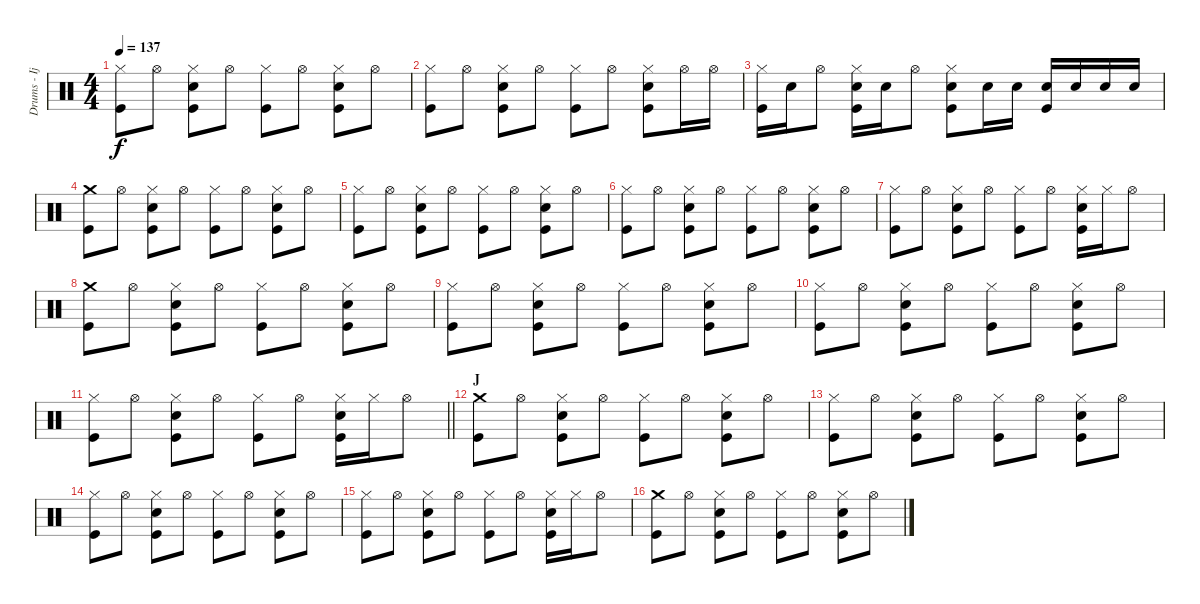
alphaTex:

\track ("Drums - Ijichi" "Drums - Ij") {instrument percussion}
\staff {score}
\articulation defaults
\ts (4 4)
\tempo 137
\clef neutral
\ks c
("Hi-Hat (closed)" "Kick (hit)").8{dy f} "Hi-Hat (open)".8 ("Hi-Hat (closed)" "Electric Snare (hit)" "Kick (hit)").8 "Hi-Hat (open)".8 ("Hi-Hat (closed)" "Kick (hit)").8 "Hi-Hat (open)".8 ("Hi-Hat (closed)" "Electric Snare (hit)" "Kick (hit)").8 "Hi-Hat (open)".8 |
("Hi-Hat (closed)" "Kick (hit)").8 "Hi-Hat (open)".8 ("Hi-Hat (closed)" "Electric Snare (hit)" "Kick (hit)").8 "Hi-Hat (open)".8 ("Hi-Hat (closed)" "Kick (hit)").8 "Hi-Hat (open)".8 ("Hi-Hat (closed)" "Electric Snare (hit)" "Kick (hit)").8 "Hi-Hat (open)".16 "Hi-Hat (open)".16 |
("Hi-Hat (closed)" "Kick (hit)").16 "Electric Snare (hit)".16 "Hi-Hat (open)".8 ("Hi-Hat (closed)" "Electric Snare (hit)" "Kick (hit)").16 "Electric Snare (hit)".16 "Hi-Hat (open)".8 ("Hi-Hat (closed)" "Electric Snare (hit)" "Kick (hit)").8 "Electric Snare (hit)".16 "Electric Snare (hit)".16 ("Electric Snare (hit)" "Kick (hit)").16 "Electric Snare (hit)".16 "Electric Snare (hit)".16 "Electric Snare (hit)".16 |
("Crash medium (hit)" "Kick (hit)").8 "Hi-Hat (open)".8 ("Hi-Hat (closed)" "Electric Snare (hit)" "Kick (hit)").8 "Hi-Hat (open)".8 ("Hi-Hat (closed)" "Kick (hit)").8 "Hi-Hat (open)".8 ("Hi-Hat (closed)" "Electric Snare (hit)" "Kick (hit)").8 "Hi-Hat (open)".8 |
("Hi-Hat (closed)" "Kick (hit)").8 "Hi-Hat (open)".8 ("Hi-Hat (closed)" "Electric Snare (hit)" "Kick (hit)").8 "Hi-Hat (open)".8 ("Hi-Hat (closed)" "Kick (hit)").8 "Hi-Hat (open)".8 ("Hi-Hat (closed)" "Electric Snare (hit)" "Kick (hit)").8 "Hi-Hat (open)".8 |
("Hi-Hat (closed)" "Kick (hit)").8 "Hi-Hat (open)".8 ("Hi-Hat (closed)" "Electric Snare (hit)" "Kick (hit)").8 "Hi-Hat (open)".8 ("Hi-Hat (closed)" "Kick (hit)").8 "Hi-Hat (open)".8 ("Hi-Hat (closed)" "Electric Snare (hit)" "Kick (hit)").8 "Hi-Hat (open)".8 |
("Hi-Hat (closed)" "Kick (hit)").8 "Hi-Hat (open)".8 ("Hi-Hat (closed)" "Electric Snare (hit)" "Kick (hit)").8 "Hi-Hat (open)".8 ("Hi-Hat (closed)" "Kick (hit)").8 "Hi-Hat (open)".8 ("Hi-Hat (closed)" "Electric Snare (hit)" "Kick (hit)").16 "Hi-Hat (closed)".16 "Hi-Hat (open)".8 |
("Crash medium (hit)" "Kick (hit)").8 "Hi-Hat (open)".8 ("Hi-Hat (closed)" "Electric Snare (hit)" "Kick (hit)").8 "Hi-Hat (open)".8 ("Hi-Hat (closed)" "Kick (hit)").8 "Hi-Hat (open)".8 ("Hi-Hat (closed)" "Electric Snare (hit)" "Kick (hit)").8 "Hi-Hat (open)".8 |
("Hi-Hat (closed)" "Kick (hit)").8 "Hi-Hat (open)".8 ("Hi-Hat (closed)" "Electric Snare (hit)" "Kick (hit)").8 "Hi-Hat (open)".8 ("Hi-Hat (closed)" "Kick (hit)").8 "Hi-Hat (open)".8 ("Hi-Hat (closed)" "Electric Snare (hit)" "Kick (hit)").8 "Hi-Hat (open)".8 |
("Hi-Hat (closed)" "Kick (hit)").8 "Hi-Hat (open)".8 ("Hi-Hat (closed)" "Electric Snare (hit)" "Kick (hit)").8 "Hi-Hat (open)".8 ("Hi-Hat (closed)" "Kick (hit)").8 "Hi-Hat (open)".8 ("Hi-Hat (closed)" "Electric Snare (hit)" "Kick (hit)").8 "Hi-Hat (open)".8 |
\barLineRight lightlight
("Hi-Hat (closed)" "Kick (hit)").8 "Hi-Hat (open)".8 ("Hi-Hat (closed)" "Electric Snare (hit)" "Kick (hit)").8 "Hi-Hat (open)".8 ("Hi-Hat (closed)" "Kick (hit)").8 "Hi-Hat (open)".8 ("Hi-Hat (closed)" "Electric Snare (hit)" "Kick (hit)").16 "Hi-Hat (closed)".16 "Hi-Hat (open)".8 |
\section ("" "J")
("Crash medium (hit)" "Kick (hit)").8 "Hi-Hat (open)".8 ("Hi-Hat (closed)" "Electric Snare (hit)" "Kick (hit)").8 "Hi-Hat (open)".8 ("Hi-Hat (closed)" "Kick (hit)").8 "Hi-Hat (open)".8 ("Hi-Hat (closed)" "Electric Snare (hit)" "Kick (hit)").8 "Hi-Hat (open)".8 |
("Hi-Hat (closed)" "Kick (hit)").8 "Hi-Hat (open)".8 ("Hi-Hat (closed)" "Electric Snare (hit)" "Kick (hit)").8 "Hi-Hat (open)".8 ("Hi-Hat (closed)" "Kick (hit)").8 "Hi-Hat (open)".8 ("Hi-Hat (closed)" "Electric Snare (hit)" "Kick (hit)").8 "Hi-Hat (open)".8 |
("Hi-Hat (closed)" "Kick (hit)").8 "Hi-Hat (open)".8 ("Hi-Hat (closed)" "Electric Snare (hit)" "Kick (hit)").8 "Hi-Hat (open)".8 ("Hi-Hat (closed)" "Kick (hit)").8 "Hi-Hat (open)".8 ("Hi-Hat (closed)" "Electric Snare (hit)" "Kick (hit)").8 "Hi-Hat (open)".8 |
("Hi-Hat (closed)" "Kick (hit)").8 "Hi-Hat (open)".8 ("Hi-Hat (closed)" "Electric Snare (hit)" "Kick (hit)").8 "Hi-Hat (open)".8 ("Hi-Hat (closed)" "Kick (hit)").8 "Hi-Hat (open)".8 ("Hi-Hat (closed)" "Electric Snare (hit)" "Kick (hit)").16 "Hi-Hat (closed)".16 "Hi-Hat (open)".8 |
("Crash medium (hit)" "Kick (hit)").8 "Hi-Hat (open)".8 ("Hi-Hat (closed)" "Electric Snare (hit)" "Kick (hit)").8 "Hi-Hat (open)".8 ("Hi-Hat (closed)" "Kick (hit)").8 "Hi-Hat (open)".8 ("Hi-Hat (closed)" "Electric Snare (hit)" "Kick (hit)").8 "Hi-Hat (open)".8
